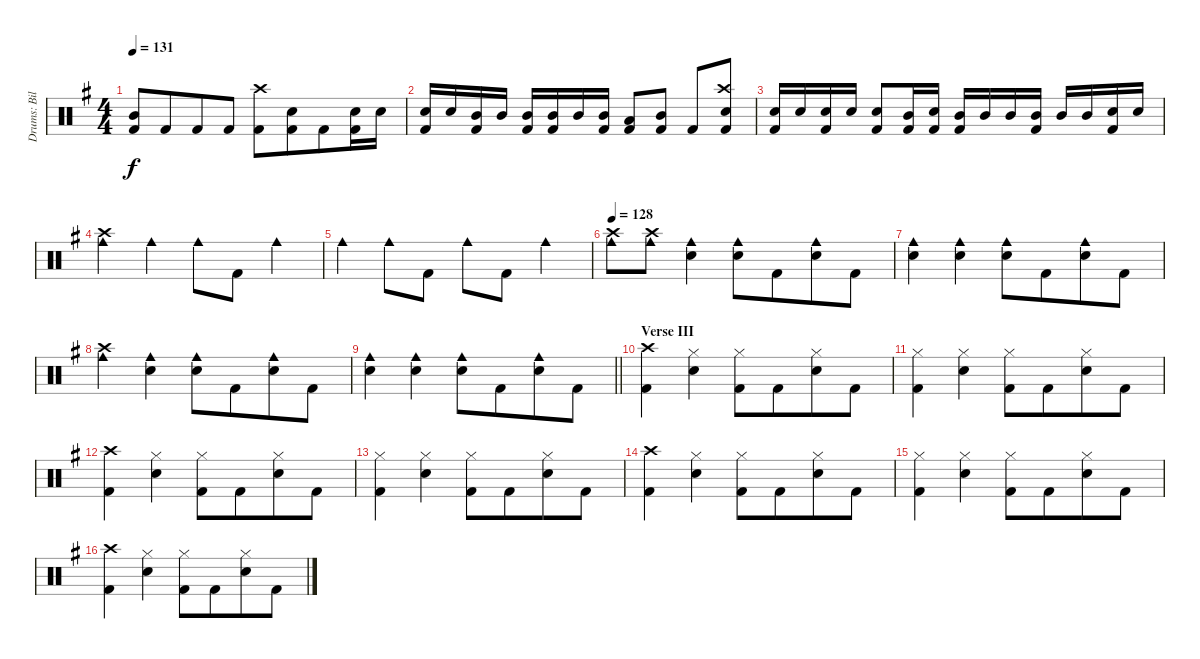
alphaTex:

\track ("Drums: Bill" "Drums: Bil") {instrument percussion}
\staff {score}
\articulation defaults
\ts (4 4)
\tempo 131
\clef neutral
\ks g
("Mid Tom (hit)" "Kick (hit) 2").8{dy f} "Kick (hit) 2".8{beam merge} "Kick (hit) 2".8 "Kick (hit) 2".8 ("Crash high (hit)" "Kick (hit) 2").8 ("Snare (hit) 2" "Kick (hit) 2").8{beam merge} "Kick (hit) 2".8 ("Snare (hit) 2" "Kick (hit) 2").16 "Snare (hit) 2".16 |
("Snare (hit) 2" "Kick (hit) 2").16 "Snare (hit) 2".16 ("Mid Tom (hit)" "Kick (hit) 2").16 "Mid Tom (hit)".16 ("Mid Tom (hit)" "Kick (hit) 2").16 ("Mid Tom (hit)" "Kick (hit) 2").16 "Mid Tom (hit)".16 ("Mid Tom (hit)" "Kick (hit) 2").16 ("Low Tom (hit)" "Kick (hit) 2").8 ("Mid Tom (hit)" "Kick (hit) 2").8 "Kick (hit) 2".8 ("Crash high (hit)" "Snare (hit) 2" "Kick (hit) 2").8 |
("Snare (hit) 2" "Kick (hit) 2").16 "Snare (hit) 2".16 ("Snare (hit) 2" "Kick (hit) 2").16 "Snare (hit) 2".16 ("Snare (hit) 2" "Kick (hit) 2").8 ("Mid Tom (hit)" "Kick (hit) 2").16 ("Snare (hit) 2" "Kick (hit) 2").16 ("Mid Tom (hit)" "Kick (hit) 2").16 "Mid Tom (hit)".16 "Mid Tom (hit)".16 ("Mid Tom (hit)" "Kick (hit) 2").16 "Mid Tom (hit)".16 "Mid Tom (hit)".16 ("Snare (hit) 2" "Kick (hit) 2").16 "Snare (hit) 2".16 |
("Crash high (hit)" "Cowbell medium (hit)").4 "Cowbell medium (hit)".4 "Cowbell medium (hit)".8 "Kick (hit) 2".8 "Cowbell medium (hit)".4 |
"Cowbell medium (hit)".4 "Cowbell medium (hit)".8 "Kick (hit) 2".8 "Cowbell medium (hit)".8 "Kick (hit) 2".8 "Cowbell medium (hit)".4 |
\tempo 128
("Crash high (hit)" "Cowbell medium (hit)").8 ("Crash high (hit)" "Cowbell medium (hit)").8 ("Snare (hit) 2" "Cowbell medium (hit)").4 ("Snare (hit) 2" "Cowbell medium (hit)").8 "Kick (hit) 2".8{beam merge} ("Snare (hit) 2" "Cowbell medium (hit)").8 "Kick (hit) 2".8 |
("Snare (hit) 2" "Cowbell medium (hit)").4 ("Snare (hit) 2" "Cowbell medium (hit)").4 ("Snare (hit) 2" "Cowbell medium (hit)").8 "Kick (hit) 2".8{beam merge} ("Snare (hit) 2" "Cowbell medium (hit)").8 "Kick (hit) 2".8 |
("Crash high (hit)" "Cowbell medium (hit)").4 ("Snare (hit) 2" "Cowbell medium (hit)").4 ("Snare (hit) 2" "Cowbell medium (hit)").8 "Kick (hit) 2".8{beam merge} ("Snare (hit) 2" "Cowbell medium (hit)").8 "Kick (hit) 2".8 |
\barLineRight lightlight
("Snare (hit) 2" "Cowbell medium (hit)").4 ("Snare (hit) 2" "Cowbell medium (hit)").4 ("Snare (hit) 2" "Cowbell medium (hit)").8 "Kick (hit) 2".8{beam merge} ("Snare (hit) 2" "Cowbell medium (hit)").8 "Kick (hit) 2".8 |
\section ("" "Verse III")
("Crash high (hit)" "Kick (hit) 2").4 ("Hi-Hat (closed)" "Snare (hit) 2").4{beam split} ("Hi-Hat (closed)" "Kick (hit) 2").8 "Kick (hit) 2".8{beam merge} ("Hi-Hat (closed)" "Snare (hit) 2").8 "Kick (hit) 2".8 |
("Hi-Hat (closed)" "Kick (hit) 2").4 ("Hi-Hat (closed)" "Snare (hit) 2").4{beam split} ("Hi-Hat (closed)" "Kick (hit) 2").8 "Kick (hit) 2".8{beam merge} ("Hi-Hat (closed)" "Snare (hit) 2").8 "Kick (hit) 2".8 |
("Crash high (hit)" "Kick (hit) 2").4 ("Hi-Hat (closed)" "Snare (hit) 2").4{beam split} ("Hi-Hat (closed)" "Kick (hit) 2").8 "Kick (hit) 2".8{beam merge} ("Hi-Hat (closed)" "Snare (hit) 2").8 "Kick (hit) 2".8 |
("Hi-Hat (closed)" "Kick (hit) 2").4 ("Hi-Hat (closed)" "Snare (hit) 2").4{beam split} ("Hi-Hat (closed)" "Kick (hit) 2").8 "Kick (hit) 2".8{beam merge} ("Hi-Hat (closed)" "Snare (hit) 2").8 "Kick (hit) 2".8 |
("Crash high (hit)" "Kick (hit) 2").4 ("Hi-Hat (closed)" "Snare (hit) 2").4{beam split} ("Hi-Hat (closed)" "Kick (hit) 2").8 "Kick (hit) 2".8{beam merge} ("Hi-Hat (closed)" "Snare (hit) 2").8 "Kick (hit) 2".8 |
("Hi-Hat (closed)" "Kick (hit) 2").4 ("Hi-Hat (closed)" "Snare (hit) 2").4{beam split} ("Hi-Hat (closed)" "Kick (hit) 2").8 "Kick (hit) 2".8{beam merge} ("Hi-Hat (closed)" "Snare (hit) 2").8 "Kick (hit) 2".8 |
("Crash high (hit)" "Kick (hit) 2").4 ("Hi-Hat (closed)" "Snare (hit) 2").4{beam split} ("Hi-Hat (closed)" "Kick (hit) 2").8 "Kick (hit) 2".8{beam merge} ("Hi-Hat (closed)" "Snare (hit) 2").8 "Kick (hit) 2".8
